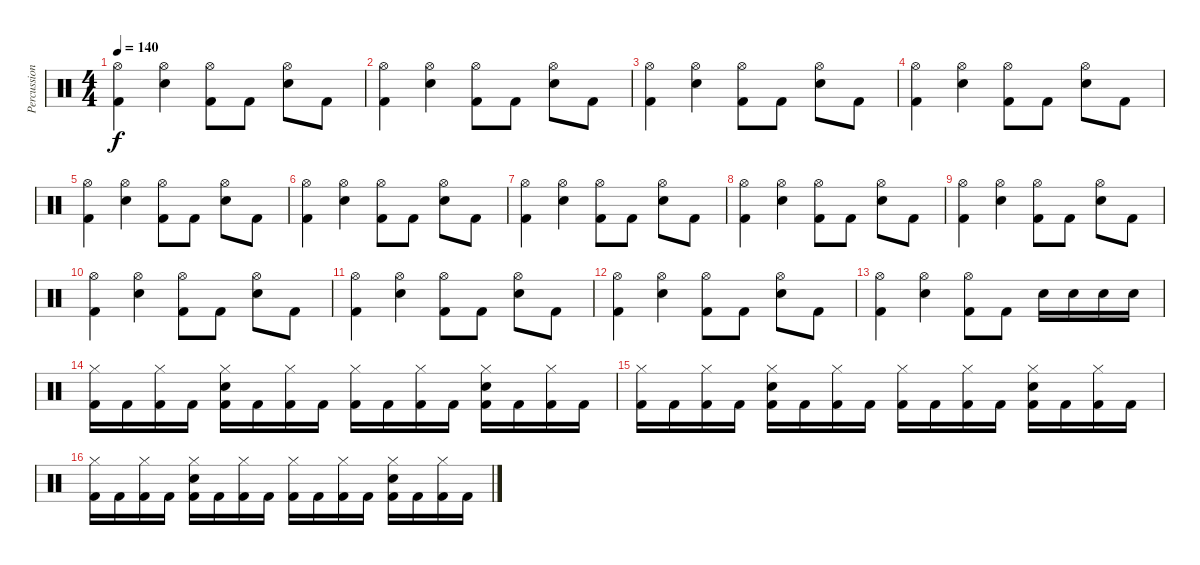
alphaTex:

\track ("Percussion" "Percussion") {instrument percussion}
\staff {score}
\articulation defaults
\ts (4 4)
\tempo 140
\clef neutral
\ks c
("Hi-Hat (open)" "Kick (hit) 2").4{dy f} ("Hi-Hat (open)" "Electric Snare (hit)").4 ("Hi-Hat (open)" "Kick (hit) 2").8 "Kick (hit) 2".8 ("Hi-Hat (open)" "Electric Snare (hit)").8 "Kick (hit) 2".8 |
("Hi-Hat (open)" "Kick (hit) 2").4 ("Hi-Hat (open)" "Electric Snare (hit)").4 ("Hi-Hat (open)" "Kick (hit) 2").8 "Kick (hit) 2".8 ("Hi-Hat (open)" "Electric Snare (hit)").8 "Kick (hit) 2".8 |
("Hi-Hat (open)" "Kick (hit) 2").4 ("Hi-Hat (open)" "Electric Snare (hit)").4 ("Hi-Hat (open)" "Kick (hit) 2").8 "Kick (hit) 2".8 ("Hi-Hat (open)" "Electric Snare (hit)").8 "Kick (hit) 2".8 |
("Hi-Hat (open)" "Kick (hit) 2").4 ("Hi-Hat (open)" "Electric Snare (hit)").4 ("Hi-Hat (open)" "Kick (hit) 2").8 "Kick (hit) 2".8 ("Hi-Hat (open)" "Electric Snare (hit)").8 "Kick (hit) 2".8 |
("Hi-Hat (open)" "Kick (hit) 2").4 ("Hi-Hat (open)" "Electric Snare (hit)").4 ("Hi-Hat (open)" "Kick (hit) 2").8 "Kick (hit) 2".8 ("Hi-Hat (open)" "Electric Snare (hit)").8 "Kick (hit) 2".8 |
("Hi-Hat (open)" "Kick (hit) 2").4 ("Hi-Hat (open)" "Electric Snare (hit)").4 ("Hi-Hat (open)" "Kick (hit) 2").8 "Kick (hit) 2".8 ("Hi-Hat (open)" "Electric Snare (hit)").8 "Kick (hit) 2".8 |
("Hi-Hat (open)" "Kick (hit) 2").4 ("Hi-Hat (open)" "Electric Snare (hit)").4 ("Hi-Hat (open)" "Kick (hit) 2").8 "Kick (hit) 2".8 ("Hi-Hat (open)" "Electric Snare (hit)").8 "Kick (hit) 2".8 |
("Hi-Hat (open)" "Kick (hit) 2").4 ("Hi-Hat (open)" "Electric Snare (hit)").4 ("Hi-Hat (open)" "Kick (hit) 2").8 "Kick (hit) 2".8 ("Hi-Hat (open)" "Electric Snare (hit)").8 "Kick (hit) 2".8 |
("Hi-Hat (open)" "Kick (hit) 2").4 ("Hi-Hat (open)" "Electric Snare (hit)").4 ("Hi-Hat (open)" "Kick (hit) 2").8 "Kick (hit) 2".8 ("Hi-Hat (open)" "Electric Snare (hit)").8 "Kick (hit) 2".8 |
("Hi-Hat (open)" "Kick (hit) 2").4 ("Hi-Hat (open)" "Electric Snare (hit)").4 ("Hi-Hat (open)" "Kick (hit) 2").8 "Kick (hit) 2".8 ("Hi-Hat (open)" "Electric Snare (hit)").8 "Kick (hit) 2".8 |
("Hi-Hat (open)" "Kick (hit) 2").4 ("Hi-Hat (open)" "Electric Snare (hit)").4 ("Hi-Hat (open)" "Kick (hit) 2").8 "Kick (hit) 2".8 ("Hi-Hat (open)" "Electric Snare (hit)").8 "Kick (hit) 2".8 |
("Hi-Hat (open)" "Kick (hit) 2").4 ("Hi-Hat (open)" "Electric Snare (hit)").4 ("Hi-Hat (open)" "Kick (hit) 2").8 "Kick (hit) 2".8 ("Hi-Hat (open)" "Electric Snare (hit)").8 "Kick (hit) 2".8 |
("Hi-Hat (open)" "Kick (hit) 2").4 ("Hi-Hat (open)" "Electric Snare (hit)").4 ("Hi-Hat (open)" "Kick (hit) 2").8 "Kick (hit) 2".8 "Electric Snare (hit)".16 "Electric Snare (hit)".16 "Electric Snare (hit)".16 "Electric Snare (hit)".16 |
("Hi-Hat (closed)" "Kick (hit) 2").16 "Kick (hit) 2".16 ("Hi-Hat (closed)" "Kick (hit) 2").16 "Kick (hit) 2".16 ("Hi-Hat (closed)" "Electric Snare (hit)" "Kick (hit) 2").16 "Kick (hit) 2".16 ("Hi-Hat (closed)" "Kick (hit) 2").16 "Kick (hit) 2".16 ("Hi-Hat (closed)" "Kick (hit) 2").16 "Kick (hit) 2".16 ("Hi-Hat (closed)" "Kick (hit) 2").16 "Kick (hit) 2".16 ("Hi-Hat (closed)" "Electric Snare (hit)" "Kick (hit) 2").16 "Kick (hit) 2".16 ("Hi-Hat (closed)" "Kick (hit) 2").16 "Kick (hit) 2".16 |
("Hi-Hat (closed)" "Kick (hit) 2").16 "Kick (hit) 2".16 ("Hi-Hat (closed)" "Kick (hit) 2").16 "Kick (hit) 2".16 ("Hi-Hat (closed)" "Electric Snare (hit)" "Kick (hit) 2").16 "Kick (hit) 2".16 ("Hi-Hat (closed)" "Kick (hit) 2").16 "Kick (hit) 2".16 ("Hi-Hat (closed)" "Kick (hit) 2").16 "Kick (hit) 2".16 ("Hi-Hat (closed)" "Kick (hit) 2").16 "Kick (hit) 2".16 ("Hi-Hat (closed)" "Electric Snare (hit)" "Kick (hit) 2").16 "Kick (hit) 2".16 ("Hi-Hat (closed)" "Kick (hit) 2").16 "Kick (hit) 2".16 |
("Hi-Hat (closed)" "Kick (hit) 2").16 "Kick (hit) 2".16 ("Hi-Hat (closed)" "Kick (hit) 2").16 "Kick (hit) 2".16 ("Hi-Hat (closed)" "Electric Snare (hit)" "Kick (hit) 2").16 "Kick (hit) 2".16 ("Hi-Hat (closed)" "Kick (hit) 2").16 "Kick (hit) 2".16 ("Hi-Hat (closed)" "Kick (hit) 2").16 "Kick (hit) 2".16 ("Hi-Hat (closed)" "Kick (hit) 2").16 "Kick (hit) 2".16 ("Hi-Hat (closed)" "Electric Snare (hit)" "Kick (hit) 2").16 "Kick (hit) 2".16 ("Hi-Hat (closed)" "Kick (hit) 2").16 "Kick (hit) 2".16
